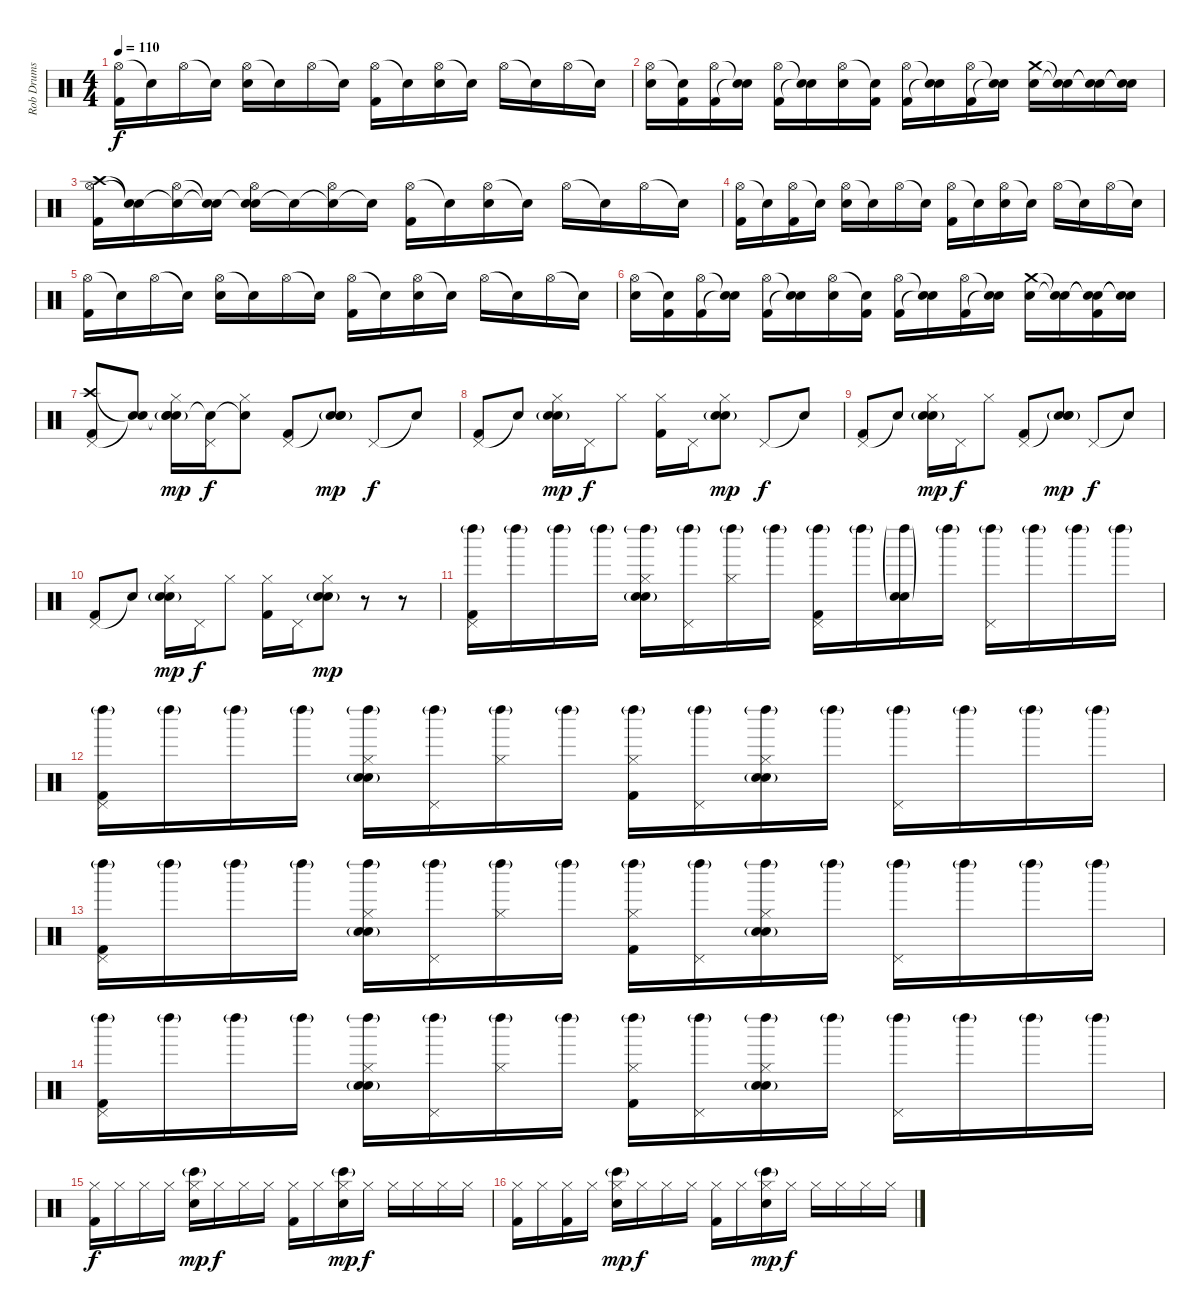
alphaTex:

\track ("Rob Drums" "Rob Drums") {instrument percussion}
\staff {score}
\articulation defaults
\ts (4 4)
\tempo 110
\clef neutral
\ks c
("Hi-Hat (open)" "Kick (hit) 2").16{dy f} "Snare (hit)"{t}.16 "Hi-Hat (open)".16 "Snare (hit)"{t}.16 ("Hi-Hat (open)" "Electric Snare (hit)").16 "Snare (hit)"{t}.16 "Hi-Hat (open)".16 "Snare (hit)"{t}.16 ("Hi-Hat (open)" "Kick (hit) 2").16 "Snare (hit)"{t}.16 ("Hi-Hat (open)" "Electric Snare (hit)").16 "Snare (hit)"{t}.16 "Hi-Hat (open)".16 "Snare (hit)"{t}.16 "Hi-Hat (open)".16 "Snare (hit)"{t}.16 |
("Hi-Hat (open)" "Electric Snare (hit)").16 ("Snare (hit)"{t} "Kick (hit) 2").16 ("Hi-Hat (open)" "Kick (hit) 2").16 ("Snare (hit)"{t} "Snare (hit)"{t}).16 ("Hi-Hat (open)" "Kick (hit) 2").16 ("Snare (hit)"{t} "Snare (hit)"{t}).16 ("Hi-Hat (open)" "Electric Snare (hit)").16 ("Snare (hit)"{t} "Kick (hit) 2").16 ("Hi-Hat (open)" "Kick (hit) 2").16 ("Snare (hit)"{t} "Snare (hit)"{t}).16 ("Hi-Hat (open)" "Kick (hit) 2").16 ("Snare (hit)"{t} "Snare (hit)"{t}).16 ("Crash medium (hit)" "Electric Snare (hit)").16 ("Snare (hit)"{t} "Snare (hit)"{t}).16 ("Snare (hit)"{t} "Snare (hit)"{t}).16 ("Snare (hit)"{t} "Snare (hit)"{t}).16 |
("Crash high (hit)" "Hi-Hat (open)" "Kick (hit) 2").16 ("Snare (hit)"{t} "Snare (hit)"{t}).16 ("Snare (hit)"{t} "Hi-Hat (open)").16 ("Snare (hit)"{t} "Snare (hit)"{t}).16 ("Snare (hit)"{t} "Hi-Hat (open)" "Electric Snare (hit)").16 "Snare (hit)"{t}.16 ("Snare (hit)"{t} "Hi-Hat (open)").16 "Snare (hit)"{t}.16 ("Hi-Hat (open)" "Kick (hit) 2").16 "Snare (hit)"{t}.16 ("Hi-Hat (open)" "Electric Snare (hit)").16 "Snare (hit)"{t}.16 "Hi-Hat (open)".16 "Snare (hit)"{t}.16 "Hi-Hat (open)".16 "Snare (hit)"{t}.16 |
("Hi-Hat (open)" "Kick (hit) 2").16 "Snare (hit)"{t}.16 ("Hi-Hat (open)" "Kick (hit) 2").16 "Snare (hit)"{t}.16 ("Hi-Hat (open)" "Electric Snare (hit)").16 "Snare (hit)"{t}.16 "Hi-Hat (open)".16 "Snare (hit)"{t}.16 ("Hi-Hat (open)" "Kick (hit) 2").16 "Snare (hit)"{t}.16 ("Hi-Hat (open)" "Electric Snare (hit)").16 "Snare (hit)"{t}.16 "Hi-Hat (open)".16 "Snare (hit)"{t}.16 "Hi-Hat (open)".16 "Snare (hit)"{t}.16 |
("Hi-Hat (open)" "Kick (hit) 2").16 "Snare (hit)"{t}.16 "Hi-Hat (open)".16 "Snare (hit)"{t}.16 ("Hi-Hat (open)" "Electric Snare (hit)").16 "Snare (hit)"{t}.16 "Hi-Hat (open)".16 "Snare (hit)"{t}.16 ("Hi-Hat (open)" "Kick (hit) 2").16 "Snare (hit)"{t}.16 ("Hi-Hat (open)" "Electric Snare (hit)").16 "Snare (hit)"{t}.16 "Hi-Hat (open)".16 "Snare (hit)"{t}.16 "Hi-Hat (open)".16 "Snare (hit)"{t}.16 |
("Hi-Hat (open)" "Electric Snare (hit)").16 ("Snare (hit)"{t} "Kick (hit) 2").16 ("Hi-Hat (open)" "Kick (hit) 2").16 ("Snare (hit)"{t} "Snare (hit)"{t}).16 ("Hi-Hat (open)" "Kick (hit) 2").16 ("Snare (hit)"{t} "Snare (hit)"{t}).16 ("Hi-Hat (open)" "Electric Snare (hit)").16 ("Snare (hit)"{t} "Kick (hit) 2").16 ("Hi-Hat (open)" "Kick (hit) 2").16 ("Snare (hit)"{t} "Snare (hit)"{t}).16 ("Hi-Hat (open)" "Kick (hit) 2").16 ("Snare (hit)"{t} "Snare (hit)"{t}).16 ("Crash medium (hit)" "Electric Snare (hit)").16 ("Snare (hit)"{t} "Snare (hit)"{t}).16 ("Snare (hit)"{t} "Snare (hit)"{t} "Kick (hit) 2").16 ("Snare (hit)"{t} "Snare (hit)"{t}).16 |
("Crash high (hit)" "Pedal Hi-Hat (hit)" "Kick (hit) 2").8 ("Snare (hit)"{t} "Snare (hit)"{t}).8 ("Snare (hit)"{t} "Hi-Hat (closed)" "Hand Clap (hit)"{g} "Electric Snare (hit)").16{dy mp} ("Snare (hit)"{t} "Pedal Hi-Hat (hit)").16{dy f} ("Snare (hit)"{t} "Hi-Hat (closed)").8 ("Pedal Hi-Hat (hit)" "Kick (hit) 2").8 ("Snare (hit)"{t} "Hand Clap (hit)"{g} "Electric Snare (hit)").8{dy mp} "Pedal Hi-Hat (hit)".8{dy f} "Snare (hit)"{t}.8 |
("Pedal Hi-Hat (hit)" "Kick (hit) 2").8 "Snare (hit)"{t}.8 ("Hi-Hat (closed)" "Hand Clap (hit)"{g} "Electric Snare (hit)").16{dy mp} "Pedal Hi-Hat (hit)".16{dy f} "Hi-Hat (closed)".8 ("Hi-Hat (closed)" "Kick (hit) 2").16 "Pedal Hi-Hat (hit)".16 ("Hi-Hat (closed)" "Hand Clap (hit)"{g} "Electric Snare (hit)").8{dy mp} "Pedal Hi-Hat (hit)".8{dy f} "Snare (hit)"{t}.8 |
("Pedal Hi-Hat (hit)" "Kick (hit) 2").8 "Snare (hit)"{t}.8 ("Hi-Hat (closed)" "Hand Clap (hit)"{g} "Electric Snare (hit)").16{dy mp} "Pedal Hi-Hat (hit)".16{dy f} "Hi-Hat (closed)".8 ("Pedal Hi-Hat (hit)" "Kick (hit) 2").8 ("Snare (hit)"{t} "Hand Clap (hit)"{g} "Electric Snare (hit)").8{dy mp} "Pedal Hi-Hat (hit)".8{dy f} "Snare (hit)"{t}.8 |
("Pedal Hi-Hat (hit)" "Kick (hit) 2").8 "Snare (hit)"{t}.8 ("Hi-Hat (closed)" "Hand Clap (hit)"{g} "Electric Snare (hit)").16{dy mp} "Pedal Hi-Hat (hit)".16{dy f} "Hi-Hat (closed)".8 ("Hi-Hat (closed)" "Kick (hit) 2").16 "Pedal Hi-Hat (hit)".16 ("Hi-Hat (closed)" "Hand Clap (hit)"{g} "Electric Snare (hit)").8{dy mp} r.8 r.8 |
("Left Maraca (hit)"{g} "Pedal Hi-Hat (hit)" "Kick (hit) 2").16 "Left Maraca (hit)"{g}.16 "Left Maraca (hit)"{g}.16 "Left Maraca (hit)"{g}.16 ("Left Maraca (hit)"{g} "Hi-Hat (closed)" "Hand Clap (hit)"{g} "Electric Snare (hit)").16 ("Left Maraca (hit)"{g} "Pedal Hi-Hat (hit)").16 ("Left Maraca (hit)"{g} "Hi-Hat (closed)").16 "Left Maraca (hit)"{g}.16 ("Left Maraca (hit)"{g} "Pedal Hi-Hat (hit)" "Kick (hit) 2").16 "Left Maraca (hit)"{g}.16 ("Left Maraca (hit)"{g} "Hand Clap (hit)"{g} "Electric Snare (hit)").16 "Left Maraca (hit)"{g}.16 ("Left Maraca (hit)"{g} "Pedal Hi-Hat (hit)").16 "Left Maraca (hit)"{g}.16 "Left Maraca (hit)"{g}.16 "Left Maraca (hit)"{g}.16 |
("Left Maraca (hit)"{g} "Pedal Hi-Hat (hit)" "Kick (hit) 2").16 "Left Maraca (hit)"{g}.16 "Left Maraca (hit)"{g}.16 "Left Maraca (hit)"{g}.16 ("Left Maraca (hit)"{g} "Hi-Hat (closed)" "Hand Clap (hit)"{g} "Electric Snare (hit)").16 ("Left Maraca (hit)"{g} "Pedal Hi-Hat (hit)").16 ("Left Maraca (hit)"{g} "Hi-Hat (closed)").16 "Left Maraca (hit)"{g}.16 ("Left Maraca (hit)"{g} "Hi-Hat (closed)" "Kick (hit) 2").16 ("Left Maraca (hit)"{g} "Pedal Hi-Hat (hit)").16 ("Left Maraca (hit)"{g} "Hi-Hat (closed)" "Hand Clap (hit)"{g} "Electric Snare (hit)").16 "Left Maraca (hit)"{g}.16 ("Left Maraca (hit)"{g} "Pedal Hi-Hat (hit)").16 "Left Maraca (hit)"{g}.16 "Left Maraca (hit)"{g}.16 "Left Maraca (hit)"{g}.16 |
("Left Maraca (hit)"{g} "Pedal Hi-Hat (hit)" "Kick (hit) 2").16 "Left Maraca (hit)"{g}.16 "Left Maraca (hit)"{g}.16 "Left Maraca (hit)"{g}.16 ("Left Maraca (hit)"{g} "Hi-Hat (closed)" "Hand Clap (hit)"{g} "Electric Snare (hit)").16 ("Left Maraca (hit)"{g} "Pedal Hi-Hat (hit)").16 ("Left Maraca (hit)"{g} "Hi-Hat (closed)").16 "Left Maraca (hit)"{g}.16 ("Left Maraca (hit)"{g} "Hi-Hat (closed)" "Kick (hit) 2").16 ("Left Maraca (hit)"{g} "Pedal Hi-Hat (hit)").16 ("Left Maraca (hit)"{g} "Hi-Hat (closed)" "Hand Clap (hit)"{g} "Electric Snare (hit)").16 "Left Maraca (hit)"{g}.16 ("Left Maraca (hit)"{g} "Pedal Hi-Hat (hit)").16 "Left Maraca (hit)"{g}.16 "Left Maraca (hit)"{g}.16 "Left Maraca (hit)"{g}.16 |
("Left Maraca (hit)"{g} "Pedal Hi-Hat (hit)" "Kick (hit) 2").16 "Left Maraca (hit)"{g}.16 "Left Maraca (hit)"{g}.16 "Left Maraca (hit)"{g}.16 ("Left Maraca (hit)"{g} "Hi-Hat (closed)" "Hand Clap (hit)"{g} "Electric Snare (hit)").16 ("Left Maraca (hit)"{g} "Pedal Hi-Hat (hit)").16 ("Left Maraca (hit)"{g} "Hi-Hat (closed)").16 "Left Maraca (hit)"{g}.16 ("Left Maraca (hit)"{g} "Hi-Hat (closed)" "Kick (hit) 2").16 ("Left Maraca (hit)"{g} "Pedal Hi-Hat (hit)").16 ("Left Maraca (hit)"{g} "Hi-Hat (closed)" "Hand Clap (hit)"{g} "Electric Snare (hit)").16 "Left Maraca (hit)"{g}.16 ("Left Maraca (hit)"{g} "Pedal Hi-Hat (hit)").16 "Left Maraca (hit)"{g}.16 "Left Maraca (hit)"{g}.16 "Left Maraca (hit)"{g}.16 |
("Hi-Hat (closed)" "Kick (hit) 2").16{dy f} "Hi-Hat (closed)".16 "Hi-Hat (closed)".16 "Hi-Hat (closed)".16 ("Hi-Hat (closed)" "Bongo High (hit)"{g} "Electric Snare (hit)").16{dy mp} "Hi-Hat (closed)".16{dy f} "Hi-Hat (closed)".16 "Hi-Hat (closed)".16 ("Hi-Hat (closed)" "Kick (hit) 2").16 "Hi-Hat (closed)".16 ("Hi-Hat (closed)" "Bongo High (hit)"{g} "Electric Snare (hit)").16{dy mp} "Hi-Hat (closed)".16{dy f} "Hi-Hat (closed)".16 "Hi-Hat (closed)".16 "Hi-Hat (closed)".16 "Hi-Hat (closed)".16 |
("Hi-Hat (closed)" "Kick (hit) 2").16 "Hi-Hat (closed)".16 ("Hi-Hat (closed)" "Kick (hit) 2").16 "Hi-Hat (closed)".16 ("Hi-Hat (closed)" "Bongo High (hit)"{g} "Electric Snare (hit)").16{dy mp} "Hi-Hat (closed)".16{dy f} "Hi-Hat (closed)".16 "Hi-Hat (closed)".16 ("Hi-Hat (closed)" "Kick (hit) 2").16 "Hi-Hat (closed)".16 ("Hi-Hat (closed)" "Bongo High (hit)"{g} "Electric Snare (hit)").16{dy mp} "Hi-Hat (closed)".16{dy f} "Hi-Hat (closed)".16 "Hi-Hat (closed)".16 "Hi-Hat (closed)".16 "Hi-Hat (closed)".16
